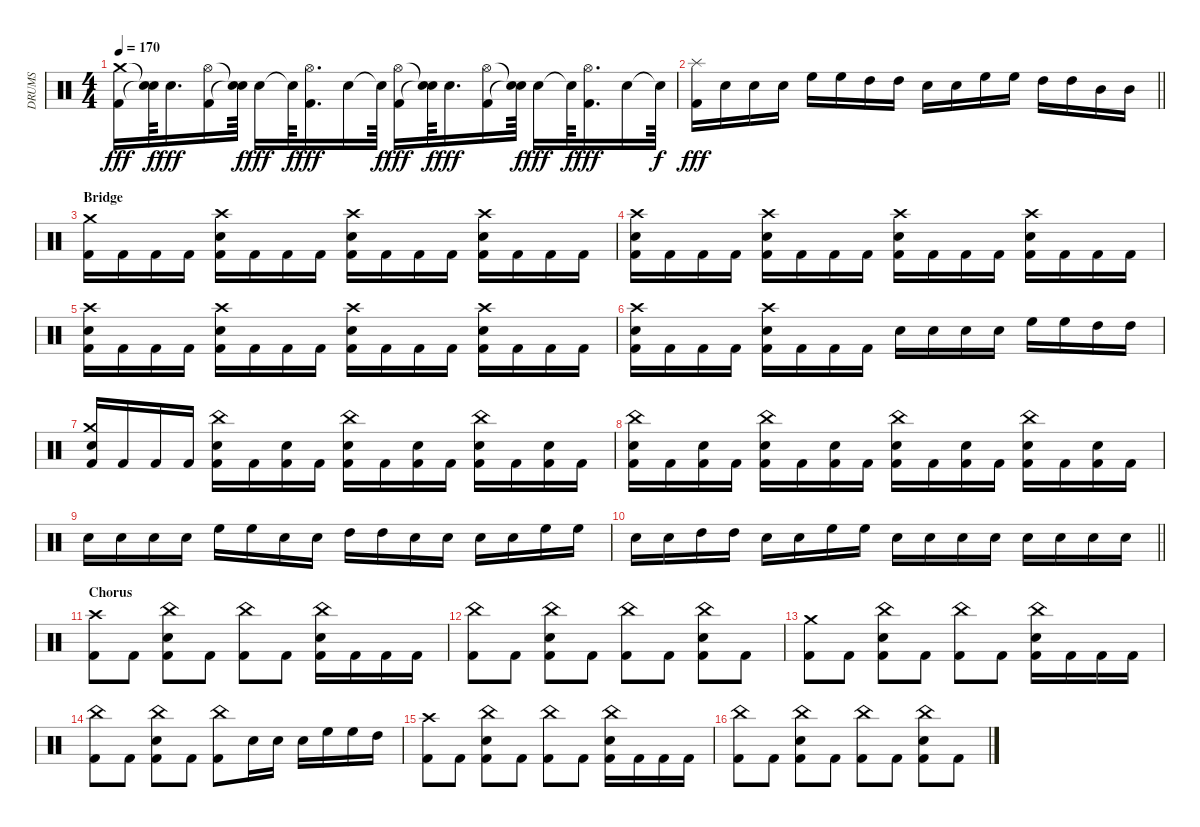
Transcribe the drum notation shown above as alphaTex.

\track ("DRUMS" "DRUMS") {instrument percussion}
\staff {score}
\articulation defaults
\ts (4 4)
\tempo 170
\clef neutral
\ks c
("Kick (hit) 2" "Crash medium (hit)").16{dy fff} ("Snare (hit)"{t} "Snare (hit)"{t}).64{dy f} "Snare (hit) 2".16{d dy fff} ("Kick (hit) 2" "Hi-Hat (open)").16 ("Snare (hit)"{t} "Snare (hit)"{t}).64{dy f} "Snare (hit) 2".16{dy fff} "Snare (hit)"{t}.64{dy f} ("Hi-Hat (open)" "Kick (hit) 2").16{d dy fff} "Snare (hit) 2".16 "Snare (hit)"{t}.64{dy f} ("Kick (hit) 2" "Hi-Hat (open)").16{dy fff} ("Snare (hit)"{t} "Snare (hit)"{t}).64{dy f} "Snare (hit) 2".16{d dy fff} ("Hi-Hat (open)" "Kick (hit) 2").16 ("Snare (hit)"{t} "Snare (hit)"{t}).64{dy f} "Snare (hit) 2".16{dy fff} "Snare (hit)"{t}.64{dy f} ("Kick (hit) 2" "Hi-Hat (open)").16{d dy fff} "Snare (hit) 2".16 "Snare (hit)"{t}.64{dy f} |
\barLineRight lightlight
("Kick (hit) 2" "Splash (hit)").16{dy fff} "Snare (hit) 2".16 "Snare (hit) 2".16 "Snare (hit) 2".16 "High Floor Tom (hit)".16 "High Floor Tom (hit)".16 "High Tom (hit)".16 "High Tom (hit)".16 "Snare (hit) 2".16 "Snare (hit) 2".16 "High Floor Tom (hit)".16 "High Floor Tom (hit)".16 "High Tom (hit)".16 "High Tom (hit)".16 "Mid Tom (hit)".16 "Mid Tom (hit)".16 |
\section ("" "Bridge")
("Kick (hit) 2" "Crash medium (hit)").16 "Kick (hit) 2".16 "Kick (hit) 2".16 "Kick (hit) 2".16 ("Snare (hit) 2" "Crash high (hit)" "Kick (hit) 2").16 "Kick (hit) 2".16 "Kick (hit) 2".16 "Kick (hit) 2".16 ("Snare (hit) 2" "Crash high (hit)" "Kick (hit) 2").16 "Kick (hit) 2".16 "Kick (hit) 2".16 "Kick (hit) 2".16 ("Snare (hit) 2" "Crash high (hit)" "Kick (hit) 2").16 "Kick (hit) 2".16 "Kick (hit) 2".16 "Kick (hit) 2".16 |
("Crash high (hit)" "Kick (hit) 2" "Snare (hit) 2").16 "Kick (hit) 2".16 "Kick (hit) 2".16 "Kick (hit) 2".16 ("Crash high (hit)" "Kick (hit) 2" "Snare (hit) 2").16 "Kick (hit) 2".16 "Kick (hit) 2".16 "Kick (hit) 2".16 ("Crash high (hit)" "Kick (hit) 2" "Snare (hit) 2").16 "Kick (hit) 2".16 "Kick (hit) 2".16 "Kick (hit) 2".16 ("Crash high (hit)" "Kick (hit) 2" "Snare (hit) 2").16 "Kick (hit) 2".16 "Kick (hit) 2".16 "Kick (hit) 2".16 |
("Crash high (hit)" "Kick (hit) 2" "Snare (hit) 2").16 "Kick (hit) 2".16 "Kick (hit) 2".16 "Kick (hit) 2".16 ("Crash high (hit)" "Kick (hit) 2" "Snare (hit) 2").16 "Kick (hit) 2".16 "Kick (hit) 2".16 "Kick (hit) 2".16 ("Crash high (hit)" "Kick (hit) 2" "Snare (hit) 2").16 "Kick (hit) 2".16 "Kick (hit) 2".16 "Kick (hit) 2".16 ("Crash high (hit)" "Kick (hit) 2" "Snare (hit) 2").16 "Kick (hit) 2".16 "Kick (hit) 2".16 "Kick (hit) 2".16 |
("Crash high (hit)" "Kick (hit) 2" "Snare (hit) 2").16 "Kick (hit) 2".16 "Kick (hit) 2".16 "Kick (hit) 2".16 ("Crash high (hit)" "Kick (hit) 2" "Snare (hit) 2").16 "Kick (hit) 2".16 "Kick (hit) 2".16 "Kick (hit) 2".16 "Snare (hit) 2".16 "Snare (hit) 2".16 "Snare (hit) 2".16 "Snare (hit) 2".16 "High Floor Tom (hit)".16 "High Floor Tom (hit)".16 "High Tom (hit)".16 "High Tom (hit)".16 |
("Snare (hit) 2" "Kick (hit) 2" "Crash medium (hit)").16 "Kick (hit) 2".16 "Kick (hit) 2".16 "Kick (hit) 2".16 ("Snare (hit) 2" "Kick (hit) 2" "China (hit)").16 "Kick (hit) 2".16 ("Kick (hit) 2" "Snare (hit) 2").16 "Kick (hit) 2".16 ("Kick (hit) 2" "Snare (hit) 2" "China (hit)").16 "Kick (hit) 2".16 ("Kick (hit) 2" "Snare (hit) 2").16 "Kick (hit) 2".16 ("Kick (hit) 2" "China (hit)" "Snare (hit) 2").16 "Kick (hit) 2".16 ("Kick (hit) 2" "Snare (hit) 2").16 "Kick (hit) 2".16 |
("China (hit)" "Kick (hit) 2" "Snare (hit) 2").16 "Kick (hit) 2".16 ("Snare (hit) 2" "Kick (hit) 2").16 "Kick (hit) 2".16 ("China (hit)" "Snare (hit) 2" "Kick (hit) 2").16 "Kick (hit) 2".16 ("Snare (hit) 2" "Kick (hit) 2").16 "Kick (hit) 2".16 ("Snare (hit) 2" "China (hit)" "Kick (hit) 2").16 "Kick (hit) 2".16 ("Snare (hit) 2" "Kick (hit) 2").16 "Kick (hit) 2".16 ("Snare (hit) 2" "Kick (hit) 2" "China (hit)").16 "Kick (hit) 2".16 ("Snare (hit) 2" "Kick (hit) 2").16 "Kick (hit) 2".16 |
"Snare (hit) 2".16 "Snare (hit) 2".16 "Snare (hit) 2".16 "Snare (hit) 2".16 "High Floor Tom (hit)".16 "High Floor Tom (hit)".16 "Snare (hit) 2".16 "Snare (hit) 2".16 "High Tom (hit)".16 "High Tom (hit)".16 "Snare (hit) 2".16 "Snare (hit) 2".16 "Snare (hit) 2".16 "Snare (hit) 2".16 "High Floor Tom (hit)".16 "High Floor Tom (hit)".16 |
\barLineRight lightlight "Snare (hit) 2".16 "Snare (hit) 2".16 "High Tom (hit)".16 "High Tom (hit)".16 "Snare (hit) 2".16 "Snare (hit) 2".16 "High Floor Tom (hit)".16 "High Floor Tom (hit)".16 "Snare (hit) 2".16 "Snare (hit) 2".16 "Snare (hit) 2".16 "Snare (hit) 2".16 "Snare (hit) 2".16 "Snare (hit) 2".16 "Snare (hit) 2".16 "Snare (hit) 2".16
|
\section ("" "Chorus")
("Kick (hit) 2" "Crash high (hit)").8 "Kick (hit) 2".8 ("China (hit)" "Kick (hit) 2" "Snare (hit) 2").8 "Kick (hit) 2".8 ("China (hit)" "Kick (hit) 2").8 "Kick (hit) 2".8 ("Kick (hit) 2" "Snare (hit) 2" "China (hit)").16 "Kick (hit) 2".16 "Kick (hit) 2".16 "Kick (hit) 2".16 |
("Kick (hit) 2" "China (hit)").8 "Kick (hit) 2".8 ("Snare (hit) 2" "Kick (hit) 2" "China (hit)").8 "Kick (hit) 2".8 ("China (hit)" "Kick (hit) 2").8 "Kick (hit) 2".8 ("China (hit)" "Kick (hit) 2" "Snare (hit) 2").8 "Kick (hit) 2".8 |
("Kick (hit) 2" "Crash medium (hit)").8 "Kick (hit) 2".8 ("Kick (hit) 2" "China (hit)" "Snare (hit) 2").8 "Kick (hit) 2".8 ("China (hit)" "Kick (hit) 2").8 "Kick (hit) 2".8 ("Snare (hit) 2" "China (hit)" "Kick (hit) 2").16 "Kick (hit) 2".16 "Kick (hit) 2".16 "Kick (hit) 2".16 |
("Kick (hit) 2" "China (hit)").8 "Kick (hit) 2".8 ("Snare (hit) 2" "Kick (hit) 2" "China (hit)").8 "Kick (hit) 2".8 ("China (hit)" "Kick (hit) 2").8 "Snare (hit) 2".16 "Snare (hit) 2".16 "Snare (hit) 2".16 "High Floor Tom (hit)".16 "High Floor Tom (hit)".16 "High Tom (hit)".16 |
("Kick (hit) 2" "Crash high (hit)").8 "Kick (hit) 2".8 ("China (hit)" "Snare (hit) 2" "Kick (hit) 2").8 "Kick (hit) 2".8 ("Kick (hit) 2" "China (hit)").8 "Kick (hit) 2".8 ("Kick (hit) 2" "China (hit)" "Snare (hit) 2").16 "Kick (hit) 2".16 "Kick (hit) 2".16 "Kick (hit) 2".16 |
("China (hit)" "Kick (hit) 2").8 "Kick (hit) 2".8 ("China (hit)" "Snare (hit) 2" "Kick (hit) 2").8 "Kick (hit) 2".8 ("China (hit)" "Kick (hit) 2").8 "Kick (hit) 2".8 ("Kick (hit) 2" "China (hit)" "Snare (hit) 2").8 "Kick (hit) 2".8
